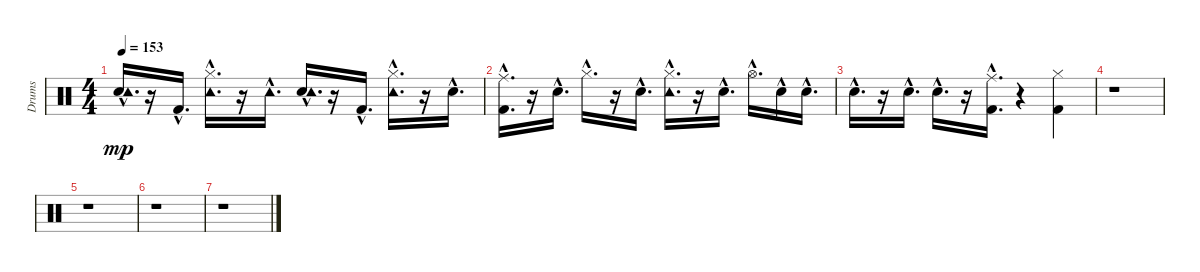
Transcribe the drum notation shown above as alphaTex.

\track ("Drums" "Drums") {instrument percussion}
\staff {score}
\articulation defaults
\ts (4 4)
\tempo 153
\clef neutral
\ks c
("Snare (hit) 2"{hac} "Tambourine (hit)"{hac}).16{d dy mp} r.16 "Kick (hit) 2"{hac}.16{d} ("Hi-Hat (closed)"{hac} "Tambourine (hit)"{hac}).16{d} r.16 "Tambourine (hit)"{hac}.16{d} ("Snare (hit) 2"{hac} "Tambourine (hit)"{hac}).16{d} r.16 "Kick (hit) 2"{hac}.16{d} ("Hi-Hat (closed)"{hac} "Tambourine (hit)"{hac}).16{d} r.16 "Snare (hit) 2"{hac}.16{d} |
("Kick (hit) 2"{hac} "Ride (middle)"{hac}).16{d} r.16 "Snare (hit) 2"{hac}.16{d} "Hi-Hat (closed)"{hac}.16{d} r.16 "Snare (hit) 2"{hac}.16{d} ("Hi-Hat (closed)"{hac} "Tambourine (hit)"{hac}).16{d} r.16 "Snare (hit) 2"{hac}.16{d} "Hi-Hat (open)"{hac}.16{d} "Snare (hit) 2"{hac}.16 "Snare (hit) 2"{hac}.16{d} |
"Snare (hit) 2"{hac}.16{d} r.16 "Snare (hit) 2"{hac}.16{d} "Snare (hit) 2"{hac}.16{d} r.16 ("Kick (hit) 2"{hac} "Ride (middle)"{hac}).16{d} r.4 ("Kick (hit) 2" "Hi-Hat (closed)").4 |
r.1 |
r.1 |
r.1 |
r.1
